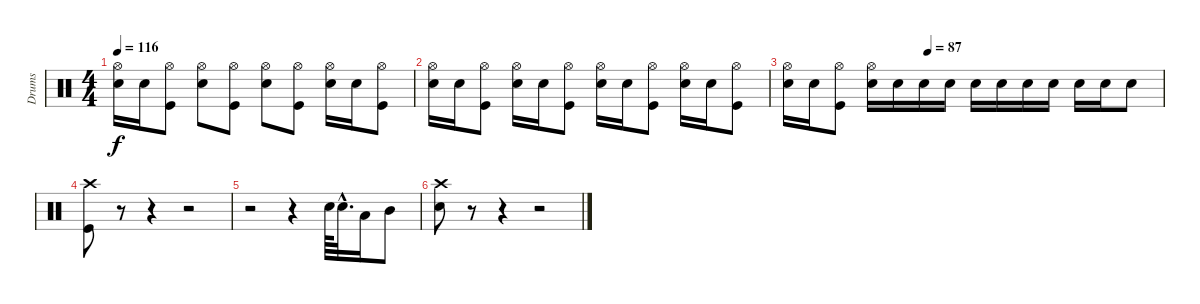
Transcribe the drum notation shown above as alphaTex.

\track ("Drums" "Drums") {instrument percussion}
\staff {score}
\articulation defaults
\ts (4 4)
\tempo 116
\clef neutral
\ks c
("Hi-Hat (open)" "Electric Snare (hit)").16{dy f} "Electric Snare (hit)".16 ("Hi-Hat (open)" "Kick (hit)").8 ("Hi-Hat (open)" "Electric Snare (hit)").8 ("Hi-Hat (open)" "Kick (hit)").8 ("Hi-Hat (open)" "Electric Snare (hit)").8 ("Hi-Hat (open)" "Kick (hit)").8 ("Hi-Hat (open)" "Electric Snare (hit)").16 "Electric Snare (hit)".16 ("Hi-Hat (open)" "Kick (hit)").8 |
("Hi-Hat (open)" "Electric Snare (hit)").16 "Electric Snare (hit)".16 ("Hi-Hat (open)" "Kick (hit)").8 ("Hi-Hat (open)" "Electric Snare (hit)").16 "Electric Snare (hit)".16 ("Hi-Hat (open)" "Kick (hit)").8 ("Hi-Hat (open)" "Electric Snare (hit)").16 "Electric Snare (hit)".16 ("Hi-Hat (open)" "Kick (hit)").8 ("Hi-Hat (open)" "Electric Snare (hit)").16 "Electric Snare (hit)".16 ("Hi-Hat (open)" "Kick (hit)").8 |
\tempo (87 0.375)
("Hi-Hat (open)" "Electric Snare (hit)").16 "Electric Snare (hit)".16 ("Hi-Hat (open)" "Kick (hit)").8 ("Hi-Hat (open)" "Electric Snare (hit)").16 "Electric Snare (hit)".16 "Electric Snare (hit)".16 "Electric Snare (hit)".16 "Electric Snare (hit)".16 "Electric Snare (hit)".16 "Electric Snare (hit)".16 "Electric Snare (hit)".16 "Electric Snare (hit)".16 "Electric Snare (hit)".16 "Electric Snare (hit)".8 |
("Crash high (hit)" "Kick (hit)").8 r.8 r.4 r.2 |
r.2 r.4 "Electric Snare (hit)".64 "Electric Snare (hit)"{hac}.32{d} "Low Tom (hit)".16 "Mid Tom (hit)".8 |
("Crash high (hit)" "Electric Snare (hit)").8 r.8 r.4 r.2
